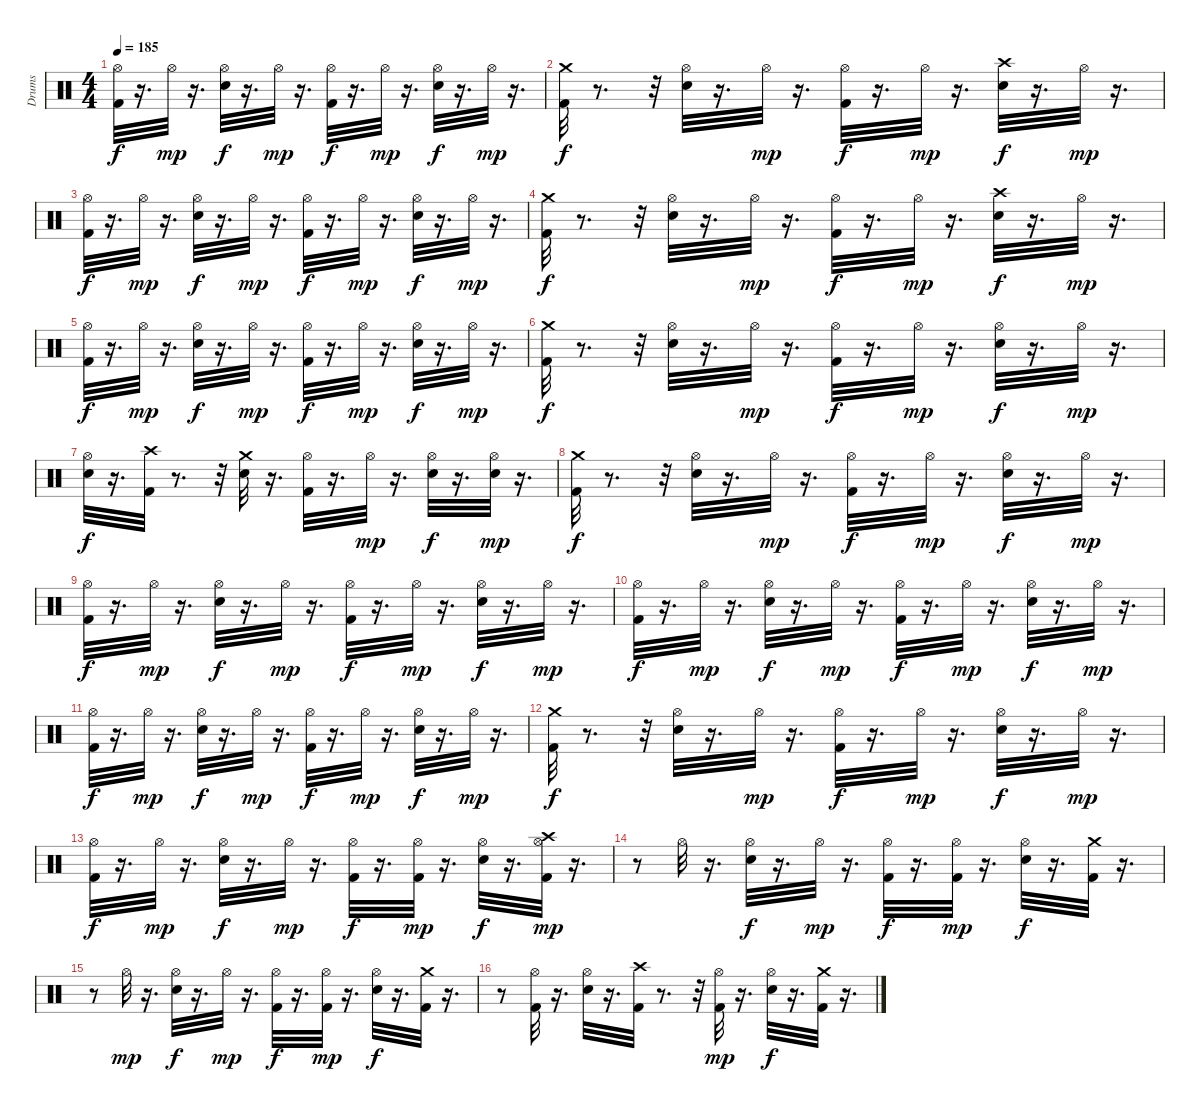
\track ("Drums" "Drums") {instrument percussion}
\staff {score}
\articulation defaults
\ts (4 4)
\tempo 185
\clef neutral
\ks c
("Hi-Hat (open)" "Kick (hit) 2").32{dy f} r.16{d} "Hi-Hat (open)".32{dy mp} r.16{d} ("Hi-Hat (open)" "Electric Snare (hit)").32{dy f} r.16{d} "Hi-Hat (open)".32{dy mp} r.16{d} ("Hi-Hat (open)" "Kick (hit) 2").32{dy f} r.16{d} "Hi-Hat (open)".32{dy mp} r.16{d} ("Hi-Hat (open)" "Electric Snare (hit)").32{dy f} r.16{d} "Hi-Hat (open)".32{dy mp} r.16{d} |
("Crash medium (hit)" "Kick (hit) 2").32{dy f} r.8{d} r.32 ("Hi-Hat (open)" "Electric Snare (hit)").32 r.16{d} "Hi-Hat (open)".32{dy mp} r.16{d} ("Hi-Hat (open)" "Kick (hit) 2").32{dy f} r.16{d} "Hi-Hat (open)".32{dy mp} r.16{d} ("Crash high (hit)" "Electric Snare (hit)").32{dy f} r.16{d} "Hi-Hat (open)".32{dy mp} r.16{d} |
("Hi-Hat (open)" "Kick (hit) 2").32{dy f} r.16{d} "Hi-Hat (open)".32{dy mp} r.16{d} ("Hi-Hat (open)" "Electric Snare (hit)").32{dy f} r.16{d} "Hi-Hat (open)".32{dy mp} r.16{d} ("Hi-Hat (open)" "Kick (hit) 2").32{dy f} r.16{d} "Hi-Hat (open)".32{dy mp} r.16{d} ("Hi-Hat (open)" "Electric Snare (hit)").32{dy f} r.16{d} "Hi-Hat (open)".32{dy mp} r.16{d} |
("Crash medium (hit)" "Kick (hit) 2").32{dy f} r.8{d} r.32 ("Hi-Hat (open)" "Electric Snare (hit)").32 r.16{d} "Hi-Hat (open)".32{dy mp} r.16{d} ("Hi-Hat (open)" "Kick (hit) 2").32{dy f} r.16{d} "Hi-Hat (open)".32{dy mp} r.16{d} ("Crash high (hit)" "Electric Snare (hit)").32{dy f} r.16{d} "Hi-Hat (open)".32{dy mp} r.16{d} |
("Hi-Hat (open)" "Kick (hit) 2").32{dy f} r.16{d} "Hi-Hat (open)".32{dy mp} r.16{d} ("Hi-Hat (open)" "Electric Snare (hit)").32{dy f} r.16{d} "Hi-Hat (open)".32{dy mp} r.16{d} ("Hi-Hat (open)" "Kick (hit) 2").32{dy f} r.16{d} "Hi-Hat (open)".32{dy mp} r.16{d} ("Hi-Hat (open)" "Electric Snare (hit)").32{dy f} r.16{d} "Hi-Hat (open)".32{dy mp} r.16{d} |
("Crash medium (hit)" "Kick (hit) 2").32{dy f} r.8{d} r.32 ("Hi-Hat (open)" "Electric Snare (hit)").32 r.16{d} "Hi-Hat (open)".32{dy mp} r.16{d} ("Hi-Hat (open)" "Kick (hit) 2").32{dy f} r.16{d} "Hi-Hat (open)".32{dy mp} r.16{d} ("Hi-Hat (open)" "Electric Snare (hit)").32{dy f} r.16{d} "Hi-Hat (open)".32{dy mp} r.16{d} |
("Electric Snare (hit)" "Hi-Hat (open)").32{dy f} r.16{d} ("Crash high (hit)" "Kick (hit) 2").32 r.8{d} r.32 ("Crash medium (hit)" "Electric Snare (hit)").32 r.16{d} ("Kick (hit) 2" "Hi-Hat (open)").32 r.16{d} "Hi-Hat (open)".32{dy mp} r.16{d} ("Hi-Hat (open)" "Electric Snare (hit)").32{dy f} r.16{d} ("Electric Snare (hit)" "Hi-Hat (open)").32{dy mp} r.16{d} |
("Crash medium (hit)" "Kick (hit) 2").32{dy f} r.8{d} r.32 ("Hi-Hat (open)" "Electric Snare (hit)").32 r.16{d} "Hi-Hat (open)".32{dy mp} r.16{d} ("Hi-Hat (open)" "Kick (hit) 2").32{dy f} r.16{d} "Hi-Hat (open)".32{dy mp} r.16{d} ("Hi-Hat (open)" "Electric Snare (hit)").32{dy f} r.16{d} "Hi-Hat (open)".32{dy mp} r.16{d} |
("Hi-Hat (open)" "Kick (hit) 2").32{dy f} r.16{d} "Hi-Hat (open)".32{dy mp} r.16{d} ("Hi-Hat (open)" "Electric Snare (hit)").32{dy f} r.16{d} "Hi-Hat (open)".32{dy mp} r.16{d} ("Hi-Hat (open)" "Kick (hit) 2").32{dy f} r.16{d} "Hi-Hat (open)".32{dy mp} r.16{d} ("Hi-Hat (open)" "Electric Snare (hit)").32{dy f} r.16{d} "Hi-Hat (open)".32{dy mp} r.16{d} |
("Hi-Hat (open)" "Kick (hit) 2").32{dy f} r.16{d} "Hi-Hat (open)".32{dy mp} r.16{d} ("Hi-Hat (open)" "Electric Snare (hit)").32{dy f} r.16{d} "Hi-Hat (open)".32{dy mp} r.16{d} ("Hi-Hat (open)" "Kick (hit) 2").32{dy f} r.16{d} "Hi-Hat (open)".32{dy mp} r.16{d} ("Hi-Hat (open)" "Electric Snare (hit)").32{dy f} r.16{d} "Hi-Hat (open)".32{dy mp} r.16{d} |
("Hi-Hat (open)" "Kick (hit) 2").32{dy f} r.16{d} "Hi-Hat (open)".32{dy mp} r.16{d} ("Hi-Hat (open)" "Electric Snare (hit)").32{dy f} r.16{d} "Hi-Hat (open)".32{dy mp} r.16{d} ("Hi-Hat (open)" "Kick (hit) 2").32{dy f} r.16{d} "Hi-Hat (open)".32{dy mp} r.16{d} ("Hi-Hat (open)" "Electric Snare (hit)").32{dy f} r.16{d} "Hi-Hat (open)".32{dy mp} r.16{d} |
("Crash medium (hit)" "Kick (hit) 2").32{dy f} r.8{d} r.32 ("Hi-Hat (open)" "Electric Snare (hit)").32 r.16{d} "Hi-Hat (open)".32{dy mp} r.16{d} ("Hi-Hat (open)" "Kick (hit) 2").32{dy f} r.16{d} "Hi-Hat (open)".32{dy mp} r.16{d} ("Hi-Hat (open)" "Electric Snare (hit)").32{dy f} r.16{d} "Hi-Hat (open)".32{dy mp} r.16{d} |
("Hi-Hat (open)" "Kick (hit) 2").32{dy f} r.16{d} "Hi-Hat (open)".32{dy mp} r.16{d} ("Hi-Hat (open)" "Electric Snare (hit)").32{dy f} r.16{d} "Hi-Hat (open)".32{dy mp} r.16{d} ("Hi-Hat (open)" "Kick (hit) 2").32{dy f} r.16{d} ("Kick (hit) 2" "Hi-Hat (open)").32{dy mp} r.16{d} ("Hi-Hat (open)" "Electric Snare (hit)").32{dy f} r.16{d} ("Hi-Hat (open)" "Crash high (hit)" "Kick (hit) 2").32{dy mp} r.16{d} |
r.8 "Hi-Hat (open)".32 r.16{d} ("Hi-Hat (open)" "Electric Snare (hit)").32{dy f} r.16{d} "Hi-Hat (open)".32{dy mp} r.16{d} ("Hi-Hat (open)" "Kick (hit) 2").32{dy f} r.16{d} ("Hi-Hat (open)" "Kick (hit) 2").32{dy mp} r.16{d} ("Hi-Hat (open)" "Electric Snare (hit)").32{dy f} r.16{d} ("Crash medium (hit)" "Kick (hit) 2").32 r.16{d} |
r.8 "Hi-Hat (open)".32{dy mp} r.16{d} ("Hi-Hat (open)" "Electric Snare (hit)").32{dy f} r.16{d} "Hi-Hat (open)".32{dy mp} r.16{d} ("Hi-Hat (open)" "Kick (hit) 2").32{dy f} r.16{d} ("Hi-Hat (open)" "Kick (hit) 2").32{dy mp} r.16{d} ("Hi-Hat (open)" "Electric Snare (hit)").32{dy f} r.16{d} ("Crash medium (hit)" "Kick (hit) 2").32 r.16{d} |
r.8 ("Hi-Hat (open)" "Kick (hit) 2").32 r.16{d} ("Hi-Hat (open)" "Electric Snare (hit)").32 r.16{d} ("Crash high (hit)" "Kick (hit) 2").32 r.8{d} r.32 ("Hi-Hat (open)" "Kick (hit) 2").32{dy mp} r.16{d} ("Hi-Hat (open)" "Electric Snare (hit)").32{dy f} r.16{d} ("Crash medium (hit)" "Kick (hit) 2").32 r.16{d}
